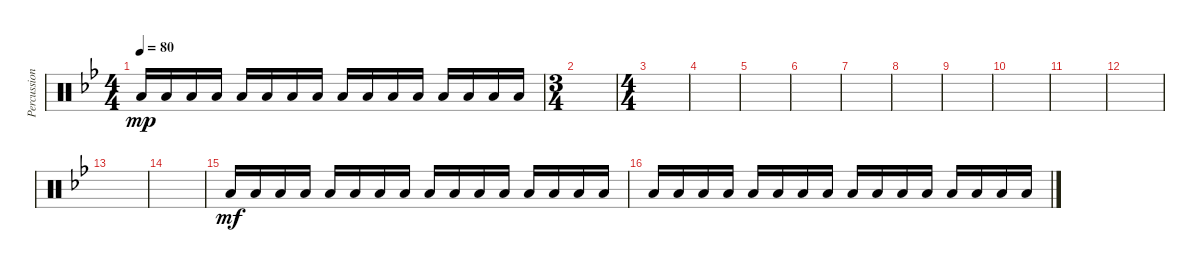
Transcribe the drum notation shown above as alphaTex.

\track ("Percussion" "Percussion") {instrument percussion}
\staff {score}
\articulation defaults
\ts (4 4)
\tempo 80
\clef neutral
\ks bb "Low Floor Tom (hit)".16{dy mp} "Low Floor Tom (hit)".16 "Low Floor Tom (hit)".16 "Low Floor Tom (hit)".16 "Low Floor Tom (hit)".16 "Low Floor Tom (hit)".16 "Low Floor Tom (hit)".16 "Low Floor Tom (hit)".16 "Low Floor Tom (hit)".16 "Low Floor Tom (hit)".16 "Low Floor Tom (hit)".16 "Low Floor Tom (hit)".16 "Low Floor Tom (hit)".16 "Low Floor Tom (hit)".16 "Low Floor Tom (hit)".16 "Low Floor Tom (hit)".16
|
\ts (3 4)
|
\ts (4 4)
|
|
|
|
|
|
|
|
|
|
|
|
"Low Floor Tom (hit)".16{dy mf} "Low Floor Tom (hit)".16 "Low Floor Tom (hit)".16 "Low Floor Tom (hit)".16 "Low Floor Tom (hit)".16 "Low Floor Tom (hit)".16 "Low Floor Tom (hit)".16 "Low Floor Tom (hit)".16 "Low Floor Tom (hit)".16 "Low Floor Tom (hit)".16 "Low Floor Tom (hit)".16 "Low Floor Tom (hit)".16 "Low Floor Tom (hit)".16 "Low Floor Tom (hit)".16 "Low Floor Tom (hit)".16 "Low Floor Tom (hit)".16 |
"Low Floor Tom (hit)".16 "Low Floor Tom (hit)".16 "Low Floor Tom (hit)".16 "Low Floor Tom (hit)".16 "Low Floor Tom (hit)".16 "Low Floor Tom (hit)".16 "Low Floor Tom (hit)".16 "Low Floor Tom (hit)".16 "Low Floor Tom (hit)".16 "Low Floor Tom (hit)".16 "Low Floor Tom (hit)".16 "Low Floor Tom (hit)".16 "Low Floor Tom (hit)".16 "Low Floor Tom (hit)".16 "Low Floor Tom (hit)".16 "Low Floor Tom (hit)".16
